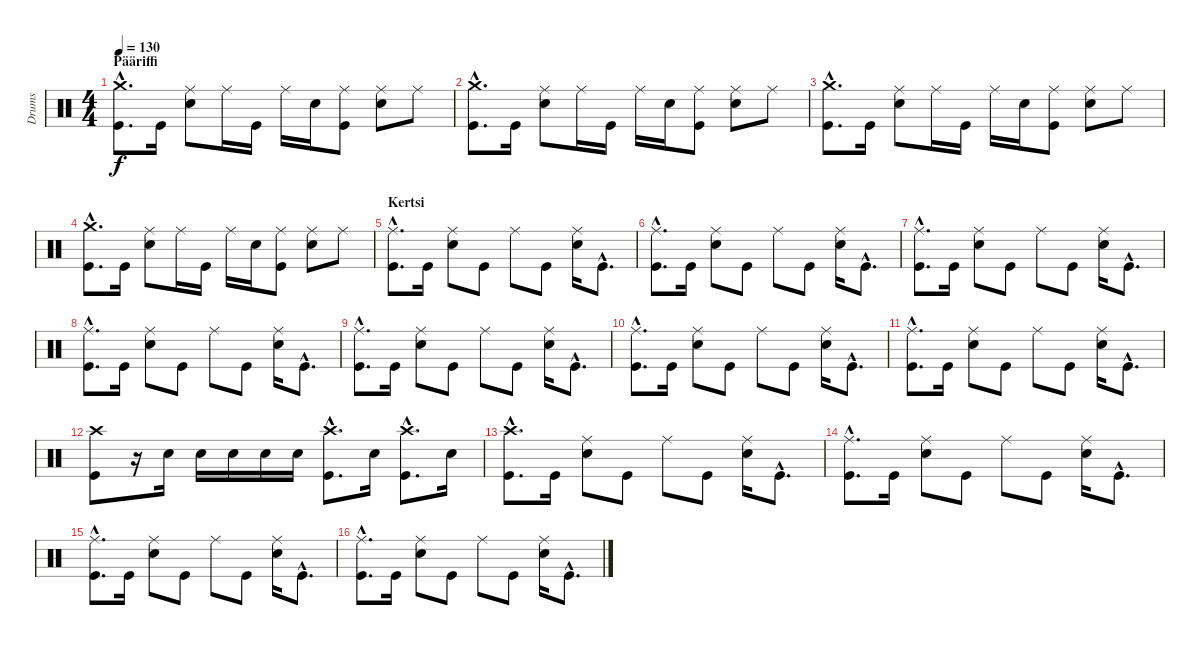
\track ("Drums" "Drums") {instrument percussion}
\staff {score}
\articulation defaults
\ts (4 4)
\section ("" "Pääriffi")
\tempo 130
\clef neutral
\ks c
("Crash medium (hit)"{hac} "Kick (hit)"{hac}).8{d dy f} "Kick (hit)".16 ("Ride (middle)" "Electric Snare (hit)").8 "Ride (middle)".16 "Kick (hit)".16 "Ride (middle)".16 "Electric Snare (hit)".16 ("Ride (middle)" "Kick (hit)").8 ("Ride (middle)" "Electric Snare (hit)").8 "Ride (middle)".8 |
("Crash medium (hit)"{hac} "Kick (hit)"{hac}).8{d} "Kick (hit)".16 ("Ride (middle)" "Electric Snare (hit)").8 "Ride (middle)".16 "Kick (hit)".16 "Ride (middle)".16 "Electric Snare (hit)".16 ("Ride (middle)" "Kick (hit)").8 ("Ride (middle)" "Electric Snare (hit)").8 "Ride (middle)".8 |
("Crash medium (hit)"{hac} "Kick (hit)"{hac}).8{d} "Kick (hit)".16 ("Ride (middle)" "Electric Snare (hit)").8 "Ride (middle)".16 "Kick (hit)".16 "Ride (middle)".16 "Electric Snare (hit)".16 ("Ride (middle)" "Kick (hit)").8 ("Ride (middle)" "Electric Snare (hit)").8 "Ride (middle)".8 |
("Crash medium (hit)"{hac} "Kick (hit)"{hac}).8{d} "Kick (hit)".16 ("Ride (middle)" "Electric Snare (hit)").8 "Ride (middle)".16 "Kick (hit)".16 "Ride (middle)".16 "Electric Snare (hit)".16 ("Ride (middle)" "Kick (hit)").8 ("Ride (middle)" "Electric Snare (hit)").8 "Ride (middle)".8 |
\section ("" "Kertsi")
("Ride (middle)"{hac} "Kick (hit)"{hac}).8{d} "Kick (hit)".16 ("Ride (middle)" "Electric Snare (hit)").8 "Kick (hit)".8 "Ride (middle)".8 "Kick (hit)".8 ("Ride (middle)" "Electric Snare (hit)").16 "Kick (hit)"{hac}.8{d} |
("Ride (middle)"{hac} "Kick (hit)"{hac}).8{d} "Kick (hit)".16 ("Ride (middle)" "Electric Snare (hit)").8 "Kick (hit)".8 "Ride (middle)".8 "Kick (hit)".8 ("Ride (middle)" "Electric Snare (hit)").16 "Kick (hit)"{hac}.8{d} |
("Ride (middle)"{hac} "Kick (hit)"{hac}).8{d} "Kick (hit)".16 ("Ride (middle)" "Electric Snare (hit)").8 "Kick (hit)".8 "Ride (middle)".8 "Kick (hit)".8 ("Ride (middle)" "Electric Snare (hit)").16 "Kick (hit)"{hac}.8{d} |
("Ride (middle)"{hac} "Kick (hit)"{hac}).8{d} "Kick (hit)".16 ("Ride (middle)" "Electric Snare (hit)").8 "Kick (hit)".8 "Ride (middle)".8 "Kick (hit)".8 ("Ride (middle)" "Electric Snare (hit)").16 "Kick (hit)"{hac}.8{d} |
("Ride (middle)"{hac} "Kick (hit)"{hac}).8{d} "Kick (hit)".16 ("Ride (middle)" "Electric Snare (hit)").8 "Kick (hit)".8 "Ride (middle)".8 "Kick (hit)".8 ("Ride (middle)" "Electric Snare (hit)").16 "Kick (hit)"{hac}.8{d} |
("Ride (middle)"{hac} "Kick (hit)"{hac}).8{d} "Kick (hit)".16 ("Ride (middle)" "Electric Snare (hit)").8 "Kick (hit)".8 "Ride (middle)".8 "Kick (hit)".8 ("Ride (middle)" "Electric Snare (hit)").16 "Kick (hit)"{hac}.8{d} |
("Ride (middle)"{hac} "Kick (hit)"{hac}).8{d} "Kick (hit)".16 ("Ride (middle)" "Electric Snare (hit)").8 "Kick (hit)".8 "Ride (middle)".8 "Kick (hit)".8 ("Ride (middle)" "Electric Snare (hit)").16 "Kick (hit)"{hac}.8{d} |
("Crash high (hit)" "Kick (hit)").8 r.16 "Electric Snare (hit)".16 "Electric Snare (hit)".16 "Electric Snare (hit)".16 "Electric Snare (hit)".16 "Electric Snare (hit)".16 ("Crash high (hit)"{hac} "Kick (hit)"{hac}).8{d} "Electric Snare (hit)".16 ("Crash high (hit)"{hac} "Kick (hit)"{hac}).8{d} "Electric Snare (hit)".16 |
("Crash high (hit)"{hac} "Kick (hit)"{hac}).8{d} "Kick (hit)".16 ("Ride (middle)" "Electric Snare (hit)").8 "Kick (hit)".8 "Ride (middle)".8 "Kick (hit)".8 ("Ride (middle)" "Electric Snare (hit)").16 "Kick (hit)"{hac}.8{d} |
("Ride (middle)"{hac} "Kick (hit)"{hac}).8{d} "Kick (hit)".16 ("Ride (middle)" "Electric Snare (hit)").8 "Kick (hit)".8 "Ride (middle)".8 "Kick (hit)".8 ("Ride (middle)" "Electric Snare (hit)").16 "Kick (hit)"{hac}.8{d} |
("Ride (middle)"{hac} "Kick (hit)"{hac}).8{d} "Kick (hit)".16 ("Ride (middle)" "Electric Snare (hit)").8 "Kick (hit)".8 "Ride (middle)".8 "Kick (hit)".8 ("Ride (middle)" "Electric Snare (hit)").16 "Kick (hit)"{hac}.8{d} |
("Ride (middle)"{hac} "Kick (hit)"{hac}).8{d} "Kick (hit)".16 ("Ride (middle)" "Electric Snare (hit)").8 "Kick (hit)".8 "Ride (middle)".8 "Kick (hit)".8 ("Ride (middle)" "Electric Snare (hit)").16 "Kick (hit)"{hac}.8{d}
